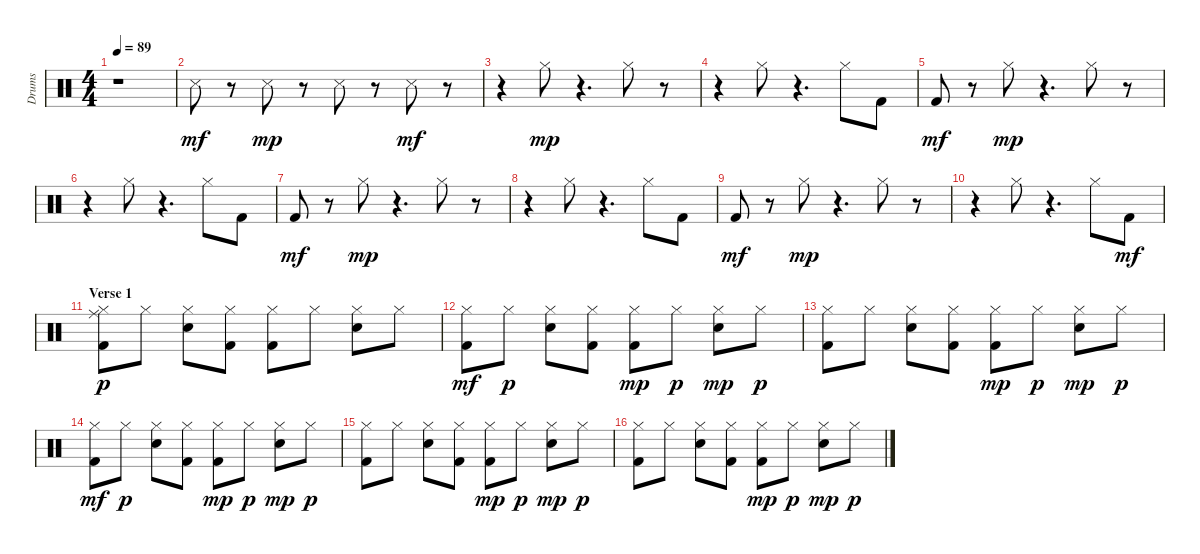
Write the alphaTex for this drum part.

\track ("Drums" "Drums") {instrument percussion}
\staff {score}
\articulation defaults
\ts (4 4)
\tempo 89
\clef neutral
\ks c
r.1{dy mf} |
"Snare (side stick) 3".8 r.8 "Snare (side stick) 3".8{dy mp} r.8 "Snare (side stick) 3".8 r.8 "Snare (side stick) 3".8{dy mf} r.8 |
r.4 "Hi-Hat (closed)".8{dy mp} r.4{d} "Hi-Hat (closed)".8 r.8 |
r.4 "Hi-Hat (closed)".8 r.4{d} "Hi-Hat (closed)".8 "Kick (hit) 2".8 |
"Kick (hit) 2".8{dy mf} r.8 "Hi-Hat (closed)".8{dy mp} r.4{d} "Hi-Hat (closed)".8 r.8 |
r.4 "Hi-Hat (closed)".8 r.4{d} "Hi-Hat (closed)".8 "Kick (hit) 2".8 |
"Kick (hit) 2".8{dy mf} r.8 "Hi-Hat (closed)".8{dy mp} r.4{d} "Hi-Hat (closed)".8 r.8 |
r.4 "Hi-Hat (closed)".8 r.4{d} "Hi-Hat (closed)".8 "Kick (hit) 2".8 |
"Kick (hit) 2".8{dy mf} r.8 "Hi-Hat (closed)".8{dy mp} r.4{d} "Hi-Hat (closed)".8 r.8 |
r.4 "Hi-Hat (closed)".8 r.4{d} "Hi-Hat (closed)".8 "Kick (hit) 2".8{dy mf} |
\section ("" "Verse 1")
("Ride (middle)" "Kick (hit) 2" "Hi-Hat (closed)").8{dy p} "Hi-Hat (closed)".8 ("Snare (hit) 2" "Hi-Hat (closed)").8 ("Kick (hit) 2" "Hi-Hat (closed)").8 ("Kick (hit) 2" "Hi-Hat (closed)").8 "Hi-Hat (closed)".8 ("Snare (hit) 2" "Hi-Hat (closed)").8 "Hi-Hat (closed)".8 |
("Hi-Hat (closed)" "Kick (hit) 2").8{dy mf} "Hi-Hat (closed)".8{dy p} ("Snare (hit) 2" "Hi-Hat (closed)").8 ("Kick (hit) 2" "Hi-Hat (closed)").8 ("Kick (hit) 2" "Hi-Hat (closed)").8{dy mp} "Hi-Hat (closed)".8{dy p} ("Snare (hit) 2" "Hi-Hat (closed)").8{dy mp} "Hi-Hat (closed)".8{dy p} |
("Kick (hit) 2" "Hi-Hat (closed)").8 "Hi-Hat (closed)".8 ("Snare (hit) 2" "Hi-Hat (closed)").8 ("Kick (hit) 2" "Hi-Hat (closed)").8 ("Kick (hit) 2" "Hi-Hat (closed)").8{dy mp} "Hi-Hat (closed)".8{dy p} ("Snare (hit) 2" "Hi-Hat (closed)").8{dy mp} "Hi-Hat (closed)".8{dy p} |
("Hi-Hat (closed)" "Kick (hit) 2").8{dy mf} "Hi-Hat (closed)".8{dy p} ("Snare (hit) 2" "Hi-Hat (closed)").8 ("Kick (hit) 2" "Hi-Hat (closed)").8 ("Kick (hit) 2" "Hi-Hat (closed)").8{dy mp} "Hi-Hat (closed)".8{dy p} ("Snare (hit) 2" "Hi-Hat (closed)").8{dy mp} "Hi-Hat (closed)".8{dy p} |
("Kick (hit) 2" "Hi-Hat (closed)").8 "Hi-Hat (closed)".8 ("Snare (hit) 2" "Hi-Hat (closed)").8 ("Kick (hit) 2" "Hi-Hat (closed)").8 ("Kick (hit) 2" "Hi-Hat (closed)").8{dy mp} "Hi-Hat (closed)".8{dy p} ("Snare (hit) 2" "Hi-Hat (closed)").8{dy mp} "Hi-Hat (closed)".8{dy p} |
("Kick (hit) 2" "Hi-Hat (closed)").8 "Hi-Hat (closed)".8 ("Snare (hit) 2" "Hi-Hat (closed)").8 ("Kick (hit) 2" "Hi-Hat (closed)").8 ("Kick (hit) 2" "Hi-Hat (closed)").8{dy mp} "Hi-Hat (closed)".8{dy p} ("Snare (hit) 2" "Hi-Hat (closed)").8{dy mp} "Hi-Hat (closed)".8{dy p}
